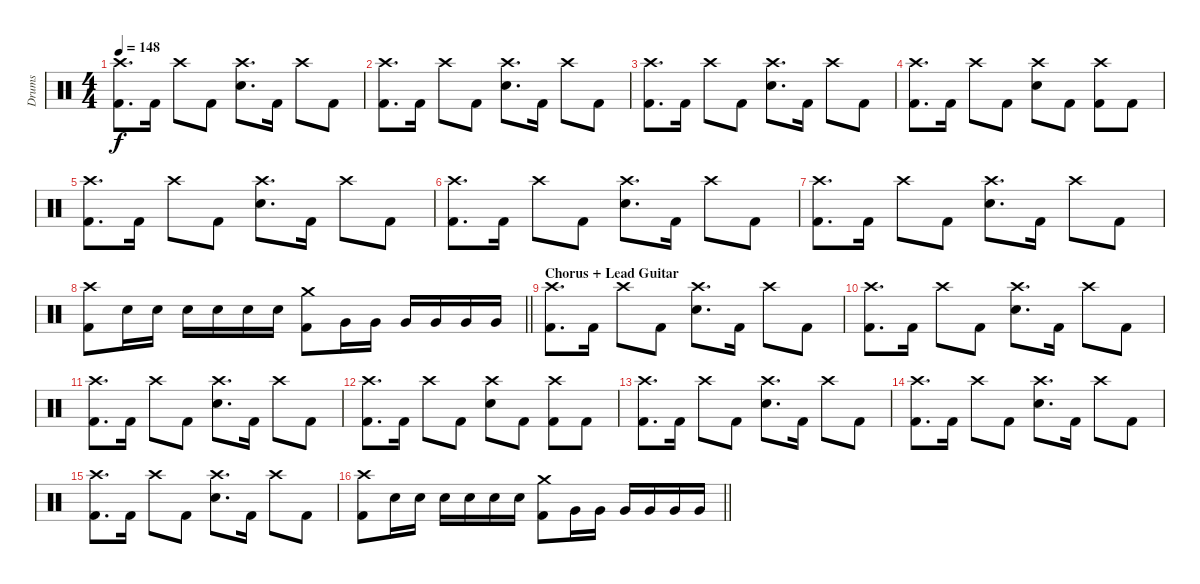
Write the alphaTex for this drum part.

\track ("Drums" "Drums") {instrument percussion}
\staff {score}
\articulation defaults
\ts (4 4)
\tempo 148
\clef neutral
\ks c
("Crash high (hit)" "Kick (hit) 2").8{d dy f} "Kick (hit) 2".16 "Crash high (hit)".8 "Kick (hit) 2".8 ("Crash high (hit)" "Snare (hit) 2").8{d} "Kick (hit) 2".16 "Crash high (hit)".8 "Kick (hit) 2".8 |
("Crash high (hit)" "Kick (hit) 2").8{d} "Kick (hit) 2".16 "Crash high (hit)".8 "Kick (hit) 2".8 ("Crash high (hit)" "Snare (hit) 2").8{d} "Kick (hit) 2".16 "Crash high (hit)".8 "Kick (hit) 2".8 |
("Crash high (hit)" "Kick (hit) 2").8{d} "Kick (hit) 2".16 "Crash high (hit)".8 "Kick (hit) 2".8 ("Crash high (hit)" "Snare (hit) 2").8{d} "Kick (hit) 2".16 "Crash high (hit)".8 "Kick (hit) 2".8 |
("Crash high (hit)" "Kick (hit) 2").8{d} "Kick (hit) 2".16 "Crash high (hit)".8 "Kick (hit) 2".8 ("Crash high (hit)" "Snare (hit) 2").8 "Kick (hit) 2".8 ("Crash high (hit)" "Kick (hit) 2").8 "Kick (hit) 2".8 |
("Crash high (hit)" "Kick (hit) 2").8{d} "Kick (hit) 2".16 "Crash high (hit)".8 "Kick (hit) 2".8 ("Crash high (hit)" "Snare (hit) 2").8{d} "Kick (hit) 2".16 "Crash high (hit)".8 "Kick (hit) 2".8 |
("Crash high (hit)" "Kick (hit) 2").8{d} "Kick (hit) 2".16 "Crash high (hit)".8 "Kick (hit) 2".8 ("Crash high (hit)" "Snare (hit) 2").8{d} "Kick (hit) 2".16 "Crash high (hit)".8 "Kick (hit) 2".8 |
("Crash high (hit)" "Kick (hit) 2").8{d} "Kick (hit) 2".16 "Crash high (hit)".8 "Kick (hit) 2".8 ("Crash high (hit)" "Snare (hit) 2").8{d} "Kick (hit) 2".16 "Crash high (hit)".8 "Kick (hit) 2".8 |
\barLineRight lightlight
("Crash high (hit)" "Kick (hit) 2").8 "Snare (hit) 2".16 "Snare (hit) 2".16 "Snare (hit) 2".16 "Snare (hit) 2".16 "Snare (hit) 2".16 "Snare (hit) 2".16 ("Crash medium (hit)" "Kick (hit) 2").8 "Very Low Tom (hit)".16 "Very Low Tom (hit)".16 "Very Low Tom (hit)".16 "Very Low Tom (hit)".16 "Very Low Tom (hit)".16 "Very Low Tom (hit)".16 |
\section ("" "Chorus + Lead Guitar")
("Crash high (hit)" "Kick (hit) 2").8{d} "Kick (hit) 2".16 "Crash high (hit)".8 "Kick (hit) 2".8 ("Crash high (hit)" "Snare (hit) 2").8{d} "Kick (hit) 2".16 "Crash high (hit)".8 "Kick (hit) 2".8 |
("Crash high (hit)" "Kick (hit) 2").8{d} "Kick (hit) 2".16 "Crash high (hit)".8 "Kick (hit) 2".8 ("Crash high (hit)" "Snare (hit) 2").8{d} "Kick (hit) 2".16 "Crash high (hit)".8 "Kick (hit) 2".8 |
("Crash high (hit)" "Kick (hit) 2").8{d} "Kick (hit) 2".16 "Crash high (hit)".8 "Kick (hit) 2".8 ("Crash high (hit)" "Snare (hit) 2").8{d} "Kick (hit) 2".16 "Crash high (hit)".8 "Kick (hit) 2".8 |
("Crash high (hit)" "Kick (hit) 2").8{d} "Kick (hit) 2".16 "Crash high (hit)".8 "Kick (hit) 2".8 ("Crash high (hit)" "Snare (hit) 2").8 "Kick (hit) 2".8 ("Crash high (hit)" "Kick (hit) 2").8 "Kick (hit) 2".8 |
("Crash high (hit)" "Kick (hit) 2").8{d} "Kick (hit) 2".16 "Crash high (hit)".8 "Kick (hit) 2".8 ("Crash high (hit)" "Snare (hit) 2").8{d} "Kick (hit) 2".16 "Crash high (hit)".8 "Kick (hit) 2".8 |
("Crash high (hit)" "Kick (hit) 2").8{d} "Kick (hit) 2".16 "Crash high (hit)".8 "Kick (hit) 2".8 ("Crash high (hit)" "Snare (hit) 2").8{d} "Kick (hit) 2".16 "Crash high (hit)".8 "Kick (hit) 2".8 |
("Crash high (hit)" "Kick (hit) 2").8{d} "Kick (hit) 2".16 "Crash high (hit)".8 "Kick (hit) 2".8 ("Crash high (hit)" "Snare (hit) 2").8{d} "Kick (hit) 2".16 "Crash high (hit)".8 "Kick (hit) 2".8 |
\barLineRight lightlight
("Crash high (hit)" "Kick (hit) 2").8 "Snare (hit) 2".16 "Snare (hit) 2".16 "Snare (hit) 2".16 "Snare (hit) 2".16 "Snare (hit) 2".16 "Snare (hit) 2".16 ("Crash medium (hit)" "Kick (hit) 2").8 "Very Low Tom (hit)".16 "Very Low Tom (hit)".16 "Very Low Tom (hit)".16 "Very Low Tom (hit)".16 "Very Low Tom (hit)".16 "Very Low Tom (hit)".16
